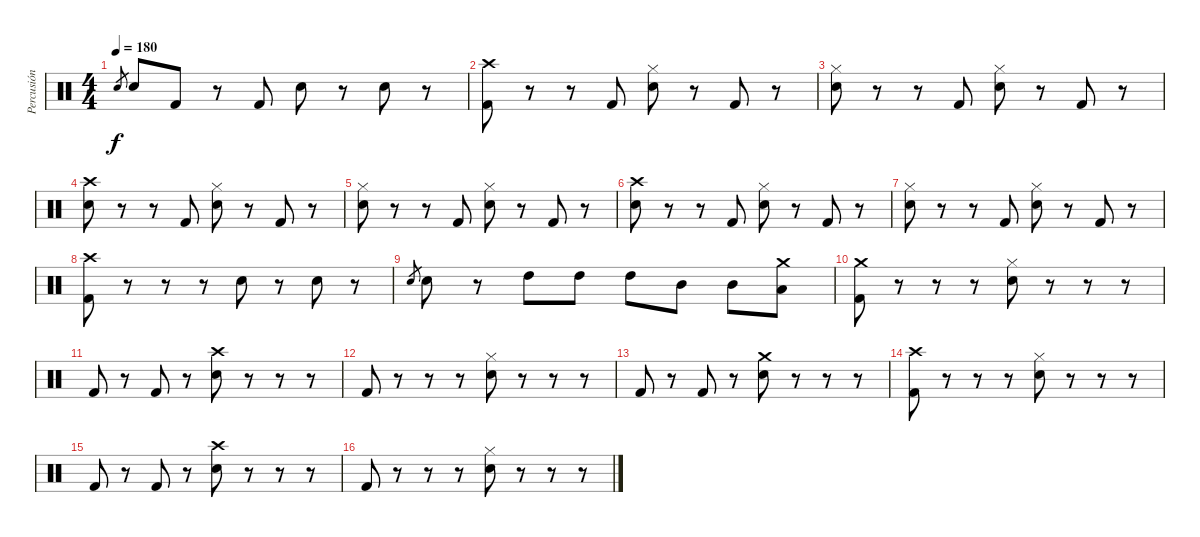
\track ("Percusión" "Percusión") {instrument percussion}
\staff {score}
\articulation defaults
\ts (4 4)
\tempo 180
\clef neutral
\ks c "Snare (hit) 2".8{gr dy f} "Snare (hit) 2".8 "Kick (hit) 2".8
r.8 "Kick (hit) 2".8 "Snare (hit) 2".8 r.8 "Snare (hit) 2".8 r.8 |
("Crash high (hit)" "Kick (hit) 2").8 r.8 r.8 "Kick (hit) 2".8 ("Hi-Hat (closed)" "Snare (hit) 2").8 r.8 "Kick (hit) 2".8 r.8 |
("Hi-Hat (closed)" "Snare (hit) 2").8 r.8 r.8 "Kick (hit) 2".8 ("Hi-Hat (closed)" "Snare (hit) 2").8 r.8 "Kick (hit) 2".8 r.8 |
("Crash high (hit)" "Snare (hit) 2").8 r.8 r.8 "Kick (hit) 2".8 ("Hi-Hat (closed)" "Snare (hit) 2").8 r.8 "Kick (hit) 2".8 r.8 |
("Hi-Hat (closed)" "Snare (hit) 2").8 r.8 r.8 "Kick (hit) 2".8 ("Hi-Hat (closed)" "Snare (hit) 2").8 r.8 "Kick (hit) 2".8 r.8 |
("Crash high (hit)" "Snare (hit) 2").8 r.8 r.8 "Kick (hit) 2".8 ("Hi-Hat (closed)" "Snare (hit) 2").8 r.8 "Kick (hit) 2".8 r.8 |
("Hi-Hat (closed)" "Snare (hit) 2").8 r.8 r.8 "Kick (hit) 2".8 ("Hi-Hat (closed)" "Snare (hit) 2").8 r.8 "Kick (hit) 2".8 r.8 |
("Crash high (hit)" "Kick (hit) 2").8 r.8 r.8 r.8 "Snare (hit) 2".8 r.8 "Snare (hit) 2".8 r.8 |
"Snare (hit) 2".8{gr} "Snare (hit) 2".8 r.8 "High Tom (hit)".8 "High Tom (hit)".8 "High Tom (hit)".8 "Mid Tom (hit)".8 "Mid Tom (hit)".8 ("Crash medium (hit)" "Low Tom (hit)").8 |
("Crash medium (hit)" "Kick (hit) 2").8 r.8 r.8 r.8 ("Hi-Hat (closed)" "Snare (hit) 2").8 r.8 r.8 r.8 |
"Kick (hit) 2".8 r.8 "Kick (hit) 2".8 r.8 ("Crash high (hit)" "Snare (hit) 2").8 r.8 r.8 r.8 |
"Kick (hit) 2".8 r.8 r.8 r.8 ("Hi-Hat (closed)" "Snare (hit) 2").8 r.8 r.8 r.8 |
"Kick (hit) 2".8 r.8 "Kick (hit) 2".8 r.8 ("Crash medium (hit)" "Snare (hit) 2").8 r.8 r.8 r.8 |
("Crash high (hit)" "Kick (hit) 2").8 r.8 r.8 r.8 ("Hi-Hat (closed)" "Snare (hit) 2").8 r.8 r.8 r.8 |
"Kick (hit) 2".8 r.8 "Kick (hit) 2".8 r.8 ("Crash high (hit)" "Snare (hit) 2").8 r.8 r.8 r.8 |
"Kick (hit) 2".8 r.8 r.8 r.8 ("Hi-Hat (closed)" "Snare (hit) 2").8 r.8 r.8 r.8
